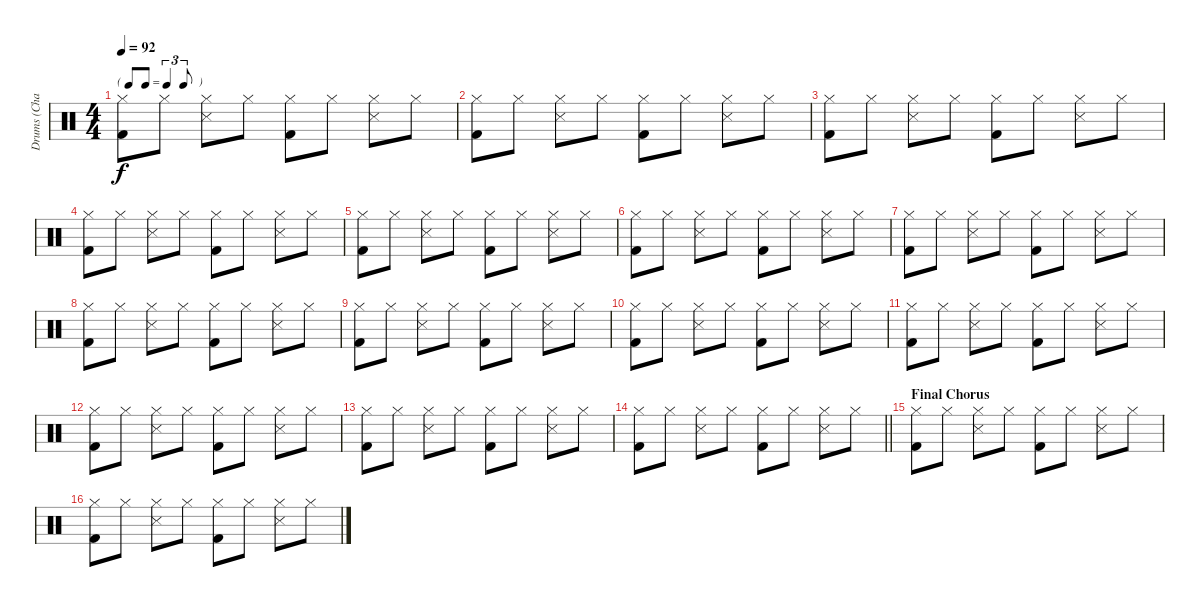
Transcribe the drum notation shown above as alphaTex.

\track ("Drums (Charlie)" "Drums (Cha") {instrument percussion}
\staff {score}
\articulation defaults
\ts (4 4)
\tf triplet8th
\tempo 92
\clef neutral
\ks c
("Hi-Hat (closed)" "Kick (hit) 2").8{dy f} "Hi-Hat (closed)".8 ("Hi-Hat (closed)" "Snare (side stick) 3").8 "Hi-Hat (closed)".8 ("Hi-Hat (closed)" "Kick (hit) 2").8 "Hi-Hat (closed)".8 ("Hi-Hat (closed)" "Snare (side stick) 3").8 "Hi-Hat (closed)".8 |
("Hi-Hat (closed)" "Kick (hit) 2").8 "Hi-Hat (closed)".8 ("Hi-Hat (closed)" "Snare (side stick) 3").8 "Hi-Hat (closed)".8 ("Hi-Hat (closed)" "Kick (hit) 2").8 "Hi-Hat (closed)".8 ("Hi-Hat (closed)" "Snare (side stick) 3").8 "Hi-Hat (closed)".8 |
("Hi-Hat (closed)" "Kick (hit) 2").8 "Hi-Hat (closed)".8 ("Hi-Hat (closed)" "Snare (side stick) 3").8 "Hi-Hat (closed)".8 ("Hi-Hat (closed)" "Kick (hit) 2").8 "Hi-Hat (closed)".8 ("Hi-Hat (closed)" "Snare (side stick) 3").8 "Hi-Hat (closed)".8 |
("Hi-Hat (closed)" "Kick (hit) 2").8 "Hi-Hat (closed)".8 ("Hi-Hat (closed)" "Snare (side stick) 3").8 "Hi-Hat (closed)".8 ("Hi-Hat (closed)" "Kick (hit) 2").8 "Hi-Hat (closed)".8 ("Hi-Hat (closed)" "Snare (side stick) 3").8 "Hi-Hat (closed)".8 |
("Hi-Hat (closed)" "Kick (hit) 2").8 "Hi-Hat (closed)".8 ("Hi-Hat (closed)" "Snare (side stick) 3").8 "Hi-Hat (closed)".8 ("Hi-Hat (closed)" "Kick (hit) 2").8 "Hi-Hat (closed)".8 ("Hi-Hat (closed)" "Snare (side stick) 3").8 "Hi-Hat (closed)".8 |
("Hi-Hat (closed)" "Kick (hit) 2").8 "Hi-Hat (closed)".8 ("Hi-Hat (closed)" "Snare (side stick) 3").8 "Hi-Hat (closed)".8 ("Hi-Hat (closed)" "Kick (hit) 2").8 "Hi-Hat (closed)".8 ("Hi-Hat (closed)" "Snare (side stick) 3").8 "Hi-Hat (closed)".8 |
("Hi-Hat (closed)" "Kick (hit) 2").8 "Hi-Hat (closed)".8 ("Hi-Hat (closed)" "Snare (side stick) 3").8 "Hi-Hat (closed)".8 ("Hi-Hat (closed)" "Kick (hit) 2").8 "Hi-Hat (closed)".8 ("Hi-Hat (closed)" "Snare (side stick) 3").8 "Hi-Hat (closed)".8 |
("Hi-Hat (closed)" "Kick (hit) 2").8 "Hi-Hat (closed)".8 ("Hi-Hat (closed)" "Snare (side stick) 3").8 "Hi-Hat (closed)".8 ("Hi-Hat (closed)" "Kick (hit) 2").8 "Hi-Hat (closed)".8 ("Hi-Hat (closed)" "Snare (side stick) 3").8 "Hi-Hat (closed)".8 |
("Hi-Hat (closed)" "Kick (hit) 2").8 "Hi-Hat (closed)".8 ("Hi-Hat (closed)" "Snare (side stick) 3").8 "Hi-Hat (closed)".8 ("Hi-Hat (closed)" "Kick (hit) 2").8 "Hi-Hat (closed)".8 ("Hi-Hat (closed)" "Snare (side stick) 3").8 "Hi-Hat (closed)".8 |
("Hi-Hat (closed)" "Kick (hit) 2").8 "Hi-Hat (closed)".8 ("Hi-Hat (closed)" "Snare (side stick) 3").8 "Hi-Hat (closed)".8 ("Hi-Hat (closed)" "Kick (hit) 2").8 "Hi-Hat (closed)".8 ("Hi-Hat (closed)" "Snare (side stick) 3").8 "Hi-Hat (closed)".8 |
("Hi-Hat (closed)" "Kick (hit) 2").8 "Hi-Hat (closed)".8 ("Hi-Hat (closed)" "Snare (side stick) 3").8 "Hi-Hat (closed)".8 ("Hi-Hat (closed)" "Kick (hit) 2").8 "Hi-Hat (closed)".8 ("Hi-Hat (closed)" "Snare (side stick) 3").8 "Hi-Hat (closed)".8 |
("Hi-Hat (closed)" "Kick (hit) 2").8 "Hi-Hat (closed)".8 ("Hi-Hat (closed)" "Snare (side stick) 3").8 "Hi-Hat (closed)".8 ("Hi-Hat (closed)" "Kick (hit) 2").8 "Hi-Hat (closed)".8 ("Hi-Hat (closed)" "Snare (side stick) 3").8 "Hi-Hat (closed)".8 |
("Hi-Hat (closed)" "Kick (hit) 2").8 "Hi-Hat (closed)".8 ("Hi-Hat (closed)" "Snare (side stick) 3").8 "Hi-Hat (closed)".8 ("Hi-Hat (closed)" "Kick (hit) 2").8 "Hi-Hat (closed)".8 ("Hi-Hat (closed)" "Snare (side stick) 3").8 "Hi-Hat (closed)".8 |
\barLineRight lightlight
("Hi-Hat (closed)" "Kick (hit) 2").8 "Hi-Hat (closed)".8 ("Hi-Hat (closed)" "Snare (side stick) 3").8 "Hi-Hat (closed)".8 ("Hi-Hat (closed)" "Kick (hit) 2").8 "Hi-Hat (closed)".8 ("Hi-Hat (closed)" "Snare (side stick) 3").8 "Hi-Hat (closed)".8 |
\section ("" "Final Chorus")
("Hi-Hat (closed)" "Kick (hit) 2").8 "Hi-Hat (closed)".8 ("Hi-Hat (closed)" "Snare (side stick) 3").8 "Hi-Hat (closed)".8 ("Hi-Hat (closed)" "Kick (hit) 2").8 "Hi-Hat (closed)".8 ("Hi-Hat (closed)" "Snare (side stick) 3").8 "Hi-Hat (closed)".8 |
("Hi-Hat (closed)" "Kick (hit) 2").8 "Hi-Hat (closed)".8 ("Hi-Hat (closed)" "Snare (side stick) 3").8 "Hi-Hat (closed)".8 ("Hi-Hat (closed)" "Kick (hit) 2").8 "Hi-Hat (closed)".8 ("Hi-Hat (closed)" "Snare (side stick) 3").8 "Hi-Hat (closed)".8
